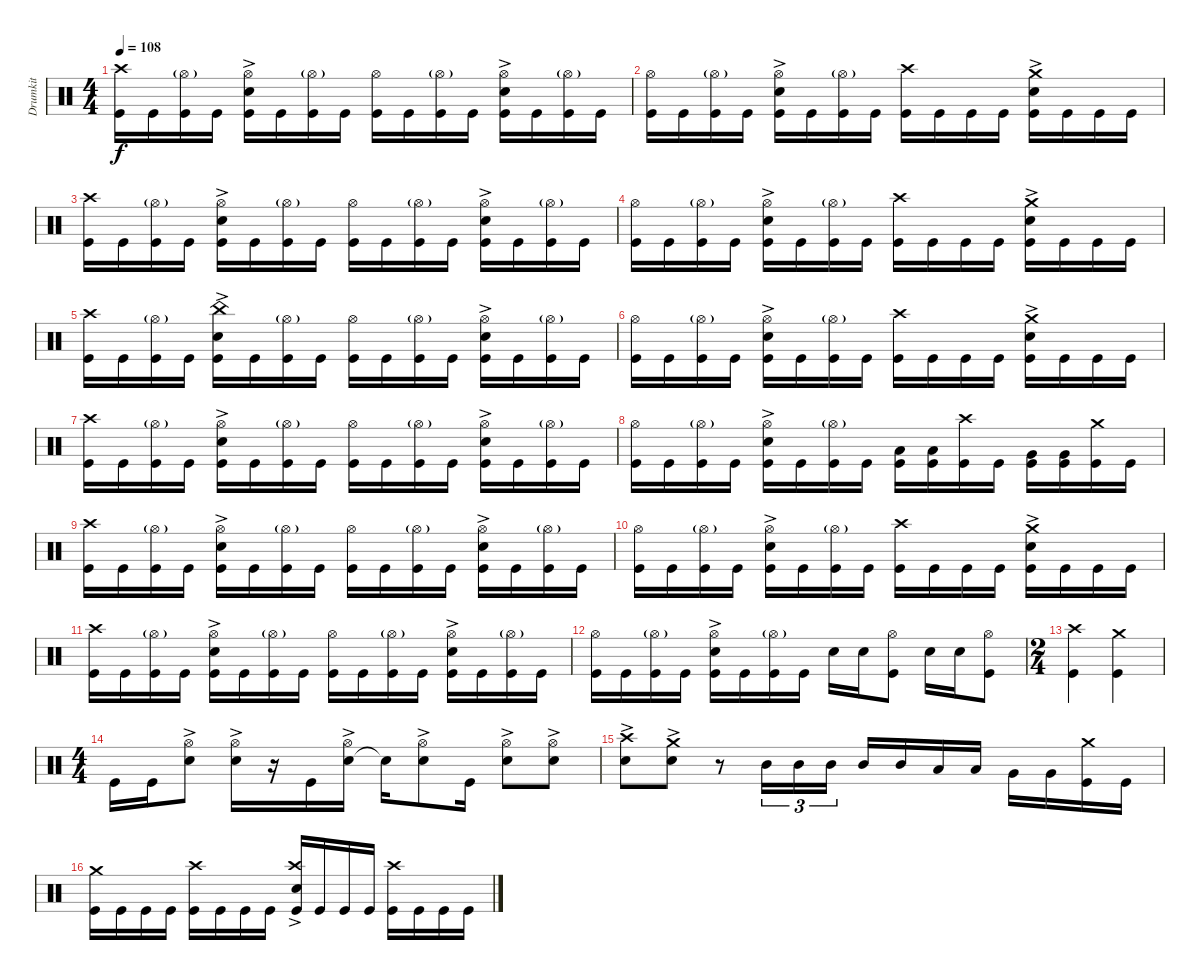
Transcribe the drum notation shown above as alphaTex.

\track ("Drumkit" "Drumkit") {instrument percussion}
\staff {score}
\articulation defaults
\ts (4 4)
\tempo 108
\clef neutral
\ks c
("Kick (hit)" "Crash high (hit)").16{dy f} "Kick (hit)".16 ("Kick (hit)" "Hi-Hat (open)"{g}).16 "Kick (hit)".16 ("Kick (hit)" "Snare (hit) 2"{ac} "Hi-Hat (open)").16 "Kick (hit)".16 ("Kick (hit)" "Hi-Hat (open)"{g}).16 "Kick (hit)".16 ("Kick (hit)" "Hi-Hat (open)").16 "Kick (hit)".16 ("Kick (hit)" "Hi-Hat (open)"{g}).16 "Kick (hit)".16 ("Kick (hit)" "Snare (hit) 2"{ac} "Hi-Hat (open)").16 "Kick (hit)".16 ("Kick (hit)" "Hi-Hat (open)"{g}).16 "Kick (hit)".16 |
("Kick (hit)" "Hi-Hat (open)").16 "Kick (hit)".16 ("Kick (hit)" "Hi-Hat (open)"{g}).16 "Kick (hit)".16 ("Kick (hit)" "Snare (hit) 2"{ac} "Hi-Hat (open)").16 "Kick (hit)".16 ("Kick (hit)" "Hi-Hat (open)"{g}).16 "Kick (hit)".16 ("Kick (hit)" "Crash high (hit)").16 "Kick (hit)".16 "Kick (hit)".16 "Kick (hit)".16 ("Kick (hit)" "Snare (hit) 2"{ac} "Crash medium (hit)").16 "Kick (hit)".16 "Kick (hit)".16 "Kick (hit)".16 |
("Kick (hit)" "Crash high (hit)").16 "Kick (hit)".16 ("Kick (hit)" "Hi-Hat (open)"{g}).16 "Kick (hit)".16 ("Kick (hit)" "Snare (hit) 2"{ac} "Hi-Hat (open)").16 "Kick (hit)".16 ("Kick (hit)" "Hi-Hat (open)"{g}).16 "Kick (hit)".16 ("Kick (hit)" "Hi-Hat (open)").16 "Kick (hit)".16 ("Kick (hit)" "Hi-Hat (open)"{g}).16 "Kick (hit)".16 ("Kick (hit)" "Snare (hit) 2"{ac} "Hi-Hat (open)").16 "Kick (hit)".16 ("Kick (hit)" "Hi-Hat (open)"{g}).16 "Kick (hit)".16 |
("Kick (hit)" "Hi-Hat (open)").16 "Kick (hit)".16 ("Kick (hit)" "Hi-Hat (open)"{g}).16 "Kick (hit)".16 ("Kick (hit)" "Snare (hit) 2"{ac} "Hi-Hat (open)").16 "Kick (hit)".16 ("Kick (hit)" "Hi-Hat (open)"{g}).16 "Kick (hit)".16 ("Kick (hit)" "Crash high (hit)").16 "Kick (hit)".16 "Kick (hit)".16 "Kick (hit)".16 ("Kick (hit)" "Snare (hit) 2"{ac} "Crash medium (hit)").16 "Kick (hit)".16 "Kick (hit)".16 "Kick (hit)".16 |
("Kick (hit)" "Crash high (hit)").16 "Kick (hit)".16 ("Kick (hit)" "Hi-Hat (open)"{g}).16 "Kick (hit)".16 ("Kick (hit)" "Snare (hit) 2"{ac} "China (hit)").16 "Kick (hit)".16 ("Kick (hit)" "Hi-Hat (open)"{g}).16 "Kick (hit)".16 ("Kick (hit)" "Hi-Hat (open)").16 "Kick (hit)".16 ("Kick (hit)" "Hi-Hat (open)"{g}).16 "Kick (hit)".16 ("Kick (hit)" "Snare (hit) 2"{ac} "Hi-Hat (open)").16 "Kick (hit)".16 ("Kick (hit)" "Hi-Hat (open)"{g}).16 "Kick (hit)".16 |
("Kick (hit)" "Hi-Hat (open)").16 "Kick (hit)".16 ("Kick (hit)" "Hi-Hat (open)"{g}).16 "Kick (hit)".16 ("Kick (hit)" "Snare (hit) 2"{ac} "Hi-Hat (open)").16 "Kick (hit)".16 ("Kick (hit)" "Hi-Hat (open)"{g}).16 "Kick (hit)".16 ("Kick (hit)" "Crash high (hit)").16 "Kick (hit)".16 "Kick (hit)".16 "Kick (hit)".16 ("Kick (hit)" "Snare (hit) 2"{ac} "Crash medium (hit)").16 "Kick (hit)".16 "Kick (hit)".16 "Kick (hit)".16 |
("Kick (hit)" "Crash high (hit)").16 "Kick (hit)".16 ("Kick (hit)" "Hi-Hat (open)"{g}).16 "Kick (hit)".16 ("Kick (hit)" "Snare (hit) 2"{ac} "Hi-Hat (open)").16 "Kick (hit)".16 ("Kick (hit)" "Hi-Hat (open)"{g}).16 "Kick (hit)".16 ("Kick (hit)" "Hi-Hat (open)").16 "Kick (hit)".16 ("Kick (hit)" "Hi-Hat (open)"{g}).16 "Kick (hit)".16 ("Kick (hit)" "Snare (hit) 2"{ac} "Hi-Hat (open)").16 "Kick (hit)".16 ("Kick (hit)" "Hi-Hat (open)"{g}).16 "Kick (hit)".16 |
("Kick (hit)" "Hi-Hat (open)").16 "Kick (hit)".16 ("Kick (hit)" "Hi-Hat (open)"{g}).16 "Kick (hit)".16 ("Kick (hit)" "Snare (hit) 2"{ac} "Hi-Hat (open)").16 "Kick (hit)".16 ("Kick (hit)" "Hi-Hat (open)"{g}).16 "Kick (hit)".16 ("Kick (hit)" "Low Tom (hit)").16 ("Kick (hit)" "Low Tom (hit)").16 ("Kick (hit)" "Crash high (hit)").16 "Kick (hit)".16 ("Kick (hit)" "Very Low Tom (hit)").16 ("Kick (hit)" "Very Low Tom (hit)").16 ("Kick (hit)" "Crash medium (hit)").16 "Kick (hit)".16 |
("Kick (hit)" "Crash high (hit)").16 "Kick (hit)".16 ("Kick (hit)" "Hi-Hat (open)"{g}).16 "Kick (hit)".16 ("Kick (hit)" "Snare (hit) 2"{ac} "Hi-Hat (open)").16 "Kick (hit)".16 ("Kick (hit)" "Hi-Hat (open)"{g}).16 "Kick (hit)".16 ("Kick (hit)" "Hi-Hat (open)").16 "Kick (hit)".16 ("Kick (hit)" "Hi-Hat (open)"{g}).16 "Kick (hit)".16 ("Kick (hit)" "Snare (hit) 2"{ac} "Hi-Hat (open)").16 "Kick (hit)".16 ("Kick (hit)" "Hi-Hat (open)"{g}).16 "Kick (hit)".16 |
("Kick (hit)" "Hi-Hat (open)").16 "Kick (hit)".16 ("Kick (hit)" "Hi-Hat (open)"{g}).16 "Kick (hit)".16 ("Kick (hit)" "Snare (hit) 2"{ac} "Hi-Hat (open)").16 "Kick (hit)".16 ("Kick (hit)" "Hi-Hat (open)"{g}).16 "Kick (hit)".16 ("Kick (hit)" "Crash high (hit)").16 "Kick (hit)".16 "Kick (hit)".16 "Kick (hit)".16 ("Kick (hit)" "Snare (hit) 2"{ac} "Crash medium (hit)").16 "Kick (hit)".16 "Kick (hit)".16 "Kick (hit)".16 |
("Kick (hit)" "Crash high (hit)").16 "Kick (hit)".16 ("Kick (hit)" "Hi-Hat (open)"{g}).16 "Kick (hit)".16 ("Kick (hit)" "Snare (hit) 2"{ac} "Hi-Hat (open)").16 "Kick (hit)".16 ("Kick (hit)" "Hi-Hat (open)"{g}).16 "Kick (hit)".16 ("Kick (hit)" "Hi-Hat (open)").16 "Kick (hit)".16 ("Kick (hit)" "Hi-Hat (open)"{g}).16 "Kick (hit)".16 ("Kick (hit)" "Snare (hit) 2"{ac} "Hi-Hat (open)").16 "Kick (hit)".16 ("Kick (hit)" "Hi-Hat (open)"{g}).16 "Kick (hit)".16 |
("Kick (hit)" "Hi-Hat (open)").16 "Kick (hit)".16 ("Kick (hit)" "Hi-Hat (open)"{g}).16 "Kick (hit)".16 ("Kick (hit)" "Snare (hit) 2"{ac} "Hi-Hat (open)").16 "Kick (hit)".16 ("Kick (hit)" "Hi-Hat (open)"{g}).16 "Kick (hit)".16 "Snare (hit) 2".16 "Snare (hit) 2".16 ("Kick (hit)" "Hi-Hat (open)").8 "Snare (hit) 2".16 "Snare (hit) 2".16 ("Kick (hit)" "Hi-Hat (open)").8 |
\ts (2 4)
("Kick (hit)" "Crash high (hit)").4 ("Kick (hit)" "Crash medium (hit)").4 |
\ts (4 4)
"Kick (hit)".16 "Kick (hit)".16 ("Snare (hit) 2"{ac} "Hi-Hat (open)").8 ("Snare (hit) 2"{ac} "Hi-Hat (open)").16 r.16 "Kick (hit)".16 ("Snare (hit) 2"{ac} "Hi-Hat (open)").16 "Snare (hit) 2"{t}.16 ("Snare (hit) 2"{ac} "Hi-Hat (open)").8 "Kick (hit)".16 ("Snare (hit) 2"{ac} "Hi-Hat (open)").8 ("Snare (hit) 2"{ac} "Hi-Hat (open)").8 |
("Snare (hit) 2"{ac} "Crash high (hit)").8 ("Snare (hit) 2"{ac} "Crash medium (hit)").8 r.8 "Mid Tom (hit)".16{tu (3 2)} "Mid Tom (hit)".16{tu (3 2)} "Mid Tom (hit)".16{tu (3 2)} "Mid Tom (hit)".16 "Mid Tom (hit)".16 "Low Tom (hit)".16 "Low Tom (hit)".16 "Very Low Tom (hit)".16 "Very Low Tom (hit)".16 ("Kick (hit)" "Crash medium (hit)").16 "Kick (hit)".16 |
("Kick (hit)" "Crash medium (hit)").16 "Kick (hit)".16 "Kick (hit)".16 "Kick (hit)".16 ("Kick (hit)" "Crash high (hit)").16 "Kick (hit)".16 "Kick (hit)".16 "Kick (hit)".16 ("Kick (hit)" "Crash high (hit)" "Snare (hit) 2"{ac}).16 "Kick (hit)".16 "Kick (hit)".16 "Kick (hit)".16 ("Kick (hit)" "Crash high (hit)").16 "Kick (hit)".16 "Kick (hit)".16 "Kick (hit)".16
